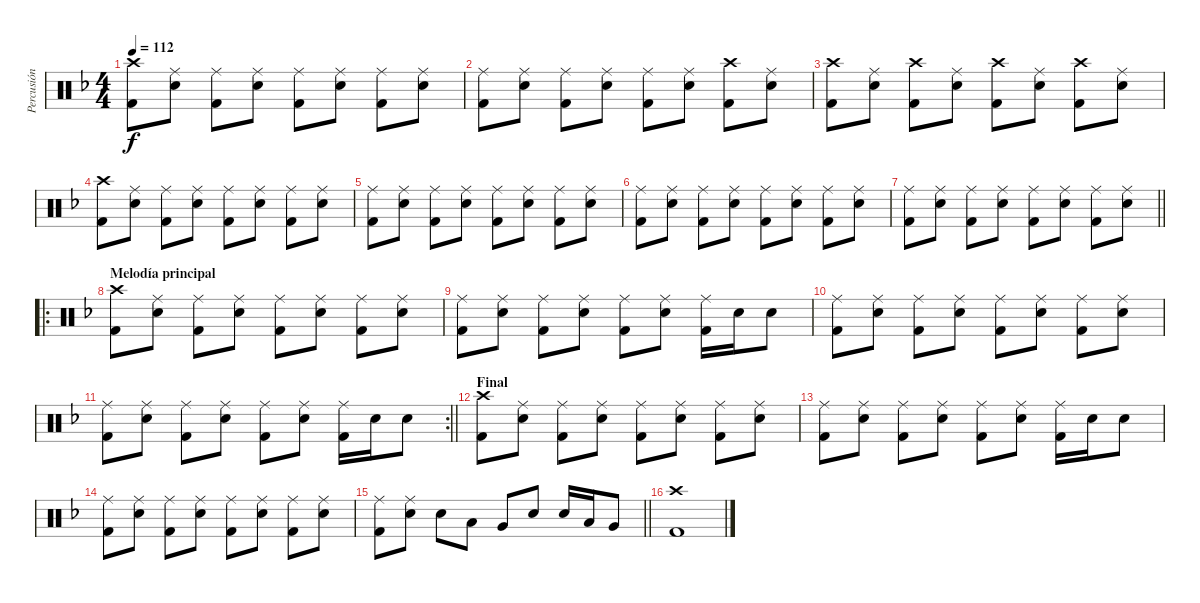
\track ("Percusión" "Percusión") {instrument percussion}
\staff {score}
\articulation defaults
\ts (4 4)
\tempo 112
\clef neutral
\ks dminor
("Crash high (hit)" "Kick (hit) 2").8{dy f} ("Ride (middle)" "Snare (hit) 2").8 ("Ride (middle)" "Kick (hit) 2").8 ("Ride (middle)" "Snare (hit) 2").8 ("Ride (middle)" "Kick (hit) 2").8 ("Ride (middle)" "Snare (hit) 2").8 ("Ride (middle)" "Kick (hit) 2").8 ("Ride (middle)" "Snare (hit) 2").8 |
("Ride (middle)" "Kick (hit) 2").8 ("Ride (middle)" "Snare (hit) 2").8 ("Ride (middle)" "Kick (hit) 2").8 ("Ride (middle)" "Snare (hit) 2").8 ("Ride (middle)" "Kick (hit) 2").8 ("Ride (middle)" "Snare (hit) 2").8 ("Crash high (hit)" "Kick (hit) 2").8 ("Ride (middle)" "Snare (hit) 2").8 |
("Crash high (hit)" "Kick (hit) 2").8 ("Ride (middle)" "Snare (hit) 2").8 ("Crash high (hit)" "Kick (hit) 2").8 ("Ride (middle)" "Snare (hit) 2").8 ("Crash high (hit)" "Kick (hit) 2").8 ("Ride (middle)" "Snare (hit) 2").8 ("Crash high (hit)" "Kick (hit) 2").8 ("Ride (middle)" "Snare (hit) 2").8 |
("Crash high (hit)" "Kick (hit) 2").8 ("Ride (middle)" "Snare (hit) 2").8 ("Ride (middle)" "Kick (hit) 2").8 ("Ride (middle)" "Snare (hit) 2").8 ("Ride (middle)" "Kick (hit) 2").8 ("Ride (middle)" "Snare (hit) 2").8 ("Ride (middle)" "Kick (hit) 2").8 ("Ride (middle)" "Snare (hit) 2").8 |
("Ride (middle)" "Kick (hit) 2").8 ("Ride (middle)" "Snare (hit) 2").8 ("Ride (middle)" "Kick (hit) 2").8 ("Ride (middle)" "Snare (hit) 2").8 ("Ride (middle)" "Kick (hit) 2").8 ("Ride (middle)" "Snare (hit) 2").8 ("Ride (middle)" "Kick (hit) 2").8 ("Ride (middle)" "Snare (hit) 2").8 |
("Ride (middle)" "Kick (hit) 2").8 ("Ride (middle)" "Snare (hit) 2").8 ("Ride (middle)" "Kick (hit) 2").8 ("Ride (middle)" "Snare (hit) 2").8 ("Ride (middle)" "Kick (hit) 2").8 ("Ride (middle)" "Snare (hit) 2").8 ("Ride (middle)" "Kick (hit) 2").8 ("Ride (middle)" "Snare (hit) 2").8 |
\barLineRight lightlight
("Ride (middle)" "Kick (hit) 2").8 ("Ride (middle)" "Snare (hit) 2").8 ("Ride (middle)" "Kick (hit) 2").8 ("Ride (middle)" "Snare (hit) 2").8 ("Ride (middle)" "Kick (hit) 2").8 ("Ride (middle)" "Snare (hit) 2").8 ("Ride (middle)" "Kick (hit) 2").8 ("Ride (middle)" "Snare (hit) 2").8 |
\ro
\section ("" "Melodía principal")
("Crash high (hit)" "Kick (hit) 2").8 ("Ride (middle)" "Snare (hit) 2").8 ("Ride (middle)" "Kick (hit) 2").8 ("Ride (middle)" "Snare (hit) 2").8 ("Ride (middle)" "Kick (hit) 2").8 ("Ride (middle)" "Snare (hit) 2").8 ("Ride (middle)" "Kick (hit) 2").8 ("Ride (middle)" "Snare (hit) 2").8 |
("Ride (middle)" "Kick (hit) 2").8 ("Ride (middle)" "Snare (hit) 2").8 ("Ride (middle)" "Kick (hit) 2").8 ("Ride (middle)" "Snare (hit) 2").8 ("Ride (middle)" "Kick (hit) 2").8 ("Ride (middle)" "Snare (hit) 2").8 ("Ride (middle)" "Kick (hit) 2").16 "Snare (hit) 2".16 "Snare (hit) 2".8 |
("Ride (middle)" "Kick (hit) 2").8 ("Ride (middle)" "Snare (hit) 2").8 ("Ride (middle)" "Kick (hit) 2").8 ("Ride (middle)" "Snare (hit) 2").8 ("Ride (middle)" "Kick (hit) 2").8 ("Ride (middle)" "Snare (hit) 2").8 ("Ride (middle)" "Kick (hit) 2").8 ("Ride (middle)" "Snare (hit) 2").8 |
\rc 2
\barLineRight lightlight
("Ride (middle)" "Kick (hit) 2").8 ("Ride (middle)" "Snare (hit) 2").8 ("Ride (middle)" "Kick (hit) 2").8 ("Ride (middle)" "Snare (hit) 2").8 ("Ride (middle)" "Kick (hit) 2").8 ("Ride (middle)" "Snare (hit) 2").8 ("Ride (middle)" "Kick (hit) 2").16 "Snare (hit) 2".16 "Snare (hit) 2".8 |
\section ("" "Final")
("Crash high (hit)" "Kick (hit) 2").8 ("Ride (middle)" "Snare (hit) 2").8 ("Ride (middle)" "Kick (hit) 2").8 ("Ride (middle)" "Snare (hit) 2").8 ("Ride (middle)" "Kick (hit) 2").8 ("Ride (middle)" "Snare (hit) 2").8 ("Ride (middle)" "Kick (hit) 2").8 ("Ride (middle)" "Snare (hit) 2").8 |
("Ride (middle)" "Kick (hit) 2").8 ("Ride (middle)" "Snare (hit) 2").8 ("Ride (middle)" "Kick (hit) 2").8 ("Ride (middle)" "Snare (hit) 2").8 ("Ride (middle)" "Kick (hit) 2").8 ("Ride (middle)" "Snare (hit) 2").8 ("Ride (middle)" "Kick (hit) 2").16 "Snare (hit) 2".16 "Snare (hit) 2".8 |
("Ride (middle)" "Kick (hit) 2").8 ("Ride (middle)" "Snare (hit) 2").8 ("Ride (middle)" "Kick (hit) 2").8 ("Ride (middle)" "Snare (hit) 2").8 ("Ride (middle)" "Kick (hit) 2").8 ("Ride (middle)" "Snare (hit) 2").8 ("Ride (middle)" "Kick (hit) 2").8 ("Ride (middle)" "Snare (hit) 2").8 |
\barLineRight lightlight
("Ride (middle)" "Kick (hit) 2").8 ("Ride (middle)" "Snare (hit) 2").8 "Snare (hit) 2".8 "Low Tom (hit)".8 "Very Low Tom (hit)".8 "Snare (hit) 2".8 "Snare (hit) 2".16 "Low Tom (hit)".16 "Very Low Tom (hit)".8 |
("Crash high (hit)" "Kick (hit) 2").1
